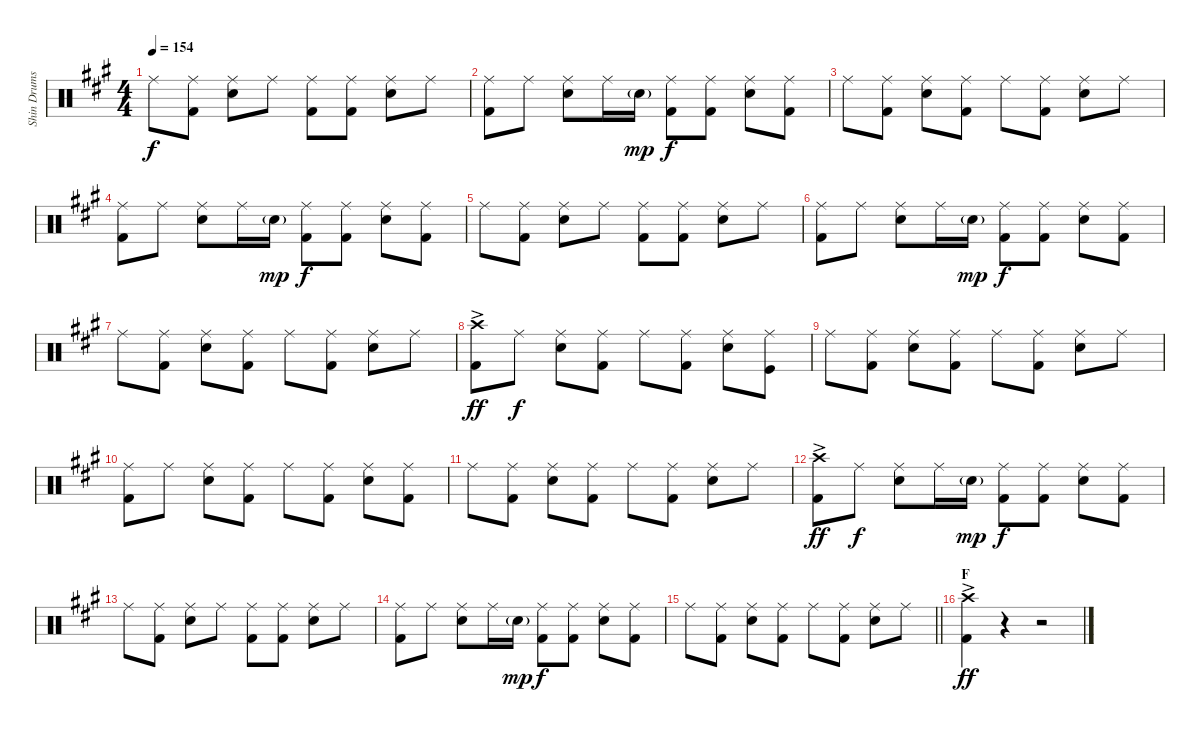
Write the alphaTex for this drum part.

\track ("Shin Drums" "Shin Drums") {instrument percussion}
\staff {score}
\articulation defaults
\ts (4 4)
\tempo 154
\clef neutral
\ks a "Ride (middle)".8{dy f}
("Ride (middle)" "Kick (hit) 2").8 ("Ride (middle)" "Snare (hit) 2").8 "Ride (middle)".8 ("Ride (middle)" "Kick (hit) 2").8 ("Ride (middle)" "Kick (hit) 2").8 ("Ride (middle)" "Snare (hit) 2").8 "Ride (middle)".8 |
("Ride (middle)" "Kick (hit) 2").8 "Ride (middle)".8 ("Ride (middle)" "Snare (hit) 2").8 "Ride (middle)".16 "Snare (hit) 2"{g}.16{dy mp} ("Ride (middle)" "Kick (hit) 2").8{dy f} ("Ride (middle)" "Kick (hit) 2").8 ("Ride (middle)" "Snare (hit) 2").8 ("Ride (middle)" "Kick (hit) 2").8 |
"Ride (middle)".8 ("Ride (middle)" "Kick (hit) 2").8 ("Ride (middle)" "Snare (hit) 2").8 ("Ride (middle)" "Kick (hit) 2").8 "Ride (middle)".8 ("Ride (middle)" "Kick (hit) 2").8 ("Ride (middle)" "Snare (hit) 2").8 "Ride (middle)".8 |
("Ride (middle)" "Kick (hit) 2").8 "Ride (middle)".8 ("Ride (middle)" "Snare (hit) 2").8 "Ride (middle)".16 "Snare (hit) 2"{g}.16{dy mp} ("Ride (middle)" "Kick (hit) 2").8{dy f} ("Ride (middle)" "Kick (hit) 2").8 ("Ride (middle)" "Snare (hit) 2").8 ("Ride (middle)" "Kick (hit) 2").8 |
"Ride (middle)".8 ("Ride (middle)" "Kick (hit) 2").8 ("Ride (middle)" "Snare (hit) 2").8 "Ride (middle)".8 ("Ride (middle)" "Kick (hit) 2").8 ("Ride (middle)" "Kick (hit) 2").8 ("Ride (middle)" "Snare (hit) 2").8 "Ride (middle)".8 |
("Ride (middle)" "Kick (hit) 2").8 "Ride (middle)".8 ("Ride (middle)" "Snare (hit) 2").8 "Ride (middle)".16 "Snare (hit) 2"{g}.16{dy mp} ("Ride (middle)" "Kick (hit) 2").8{dy f} ("Ride (middle)" "Kick (hit) 2").8 ("Ride (middle)" "Snare (hit) 2").8 ("Ride (middle)" "Kick (hit) 2").8 |
"Ride (middle)".8 ("Ride (middle)" "Kick (hit) 2").8 ("Ride (middle)" "Snare (hit) 2").8 ("Ride (middle)" "Kick (hit) 2").8 "Ride (middle)".8 ("Ride (middle)" "Kick (hit) 2").8 ("Ride (middle)" "Snare (hit) 2").8 "Ride (middle)".8 |
("Crash high (hit)"{ac} "Kick (hit) 2").8{dy ff} "Ride (middle)".8{dy f} ("Ride (middle)" "Snare (hit) 2").8 ("Ride (middle)" "Kick (hit) 2").8 "Ride (middle)".8 ("Ride (middle)" "Kick (hit) 2").8 ("Ride (middle)" "Snare (hit) 2").8 ("Ride (middle)" "Kick (hit)").8 |
"Ride (middle)".8 ("Ride (middle)" "Kick (hit) 2").8 ("Ride (middle)" "Snare (hit) 2").8 ("Ride (middle)" "Kick (hit) 2").8 "Ride (middle)".8 ("Ride (middle)" "Kick (hit) 2").8 ("Ride (middle)" "Snare (hit) 2").8 "Ride (middle)".8 |
("Ride (middle)" "Kick (hit) 2").8 "Ride (middle)".8 ("Ride (middle)" "Snare (hit) 2").8 ("Ride (middle)" "Kick (hit) 2").8 "Ride (middle)".8 ("Ride (middle)" "Kick (hit) 2").8 ("Ride (middle)" "Snare (hit) 2").8 ("Ride (middle)" "Kick (hit) 2").8 |
"Ride (middle)".8 ("Ride (middle)" "Kick (hit) 2").8 ("Ride (middle)" "Snare (hit) 2").8 ("Ride (middle)" "Kick (hit) 2").8 "Ride (middle)".8 ("Ride (middle)" "Kick (hit) 2").8 ("Ride (middle)" "Snare (hit) 2").8 "Ride (middle)".8 |
("Crash high (hit)"{ac} "Kick (hit) 2").8{dy ff} "Ride (middle)".8{dy f} ("Ride (middle)" "Snare (hit) 2").8 "Ride (middle)".16 "Snare (hit) 2"{g}.16{dy mp} ("Ride (middle)" "Kick (hit) 2").8{dy f} ("Ride (middle)" "Kick (hit) 2").8 ("Ride (middle)" "Snare (hit) 2").8 ("Ride (middle)" "Kick (hit) 2").8 |
"Ride (middle)".8 ("Ride (middle)" "Kick (hit) 2").8 ("Ride (middle)" "Snare (hit) 2").8 "Ride (middle)".8 ("Ride (middle)" "Kick (hit) 2").8 ("Ride (middle)" "Kick (hit) 2").8 ("Ride (middle)" "Snare (hit) 2").8 "Ride (middle)".8 |
("Ride (middle)" "Kick (hit) 2").8 "Ride (middle)".8 ("Ride (middle)" "Snare (hit) 2").8 "Ride (middle)".16 "Snare (hit) 2"{g}.16{dy mp} ("Ride (middle)" "Kick (hit) 2").8{dy f} ("Ride (middle)" "Kick (hit) 2").8 ("Ride (middle)" "Snare (hit) 2").8 ("Ride (middle)" "Kick (hit) 2").8 |
\barLineRight lightlight "Ride (middle)".8
("Ride (middle)" "Kick (hit) 2").8 ("Ride (middle)" "Snare (hit) 2").8 ("Ride (middle)" "Kick (hit) 2").8 "Ride (middle)".8 ("Ride (middle)" "Kick (hit) 2").8 ("Ride (middle)" "Snare (hit) 2").8 "Ride (middle)".8 |
\section ("" "F")
("Crash high (hit)"{ac} "Kick (hit) 2").4{dy ff} r.4 r.2
